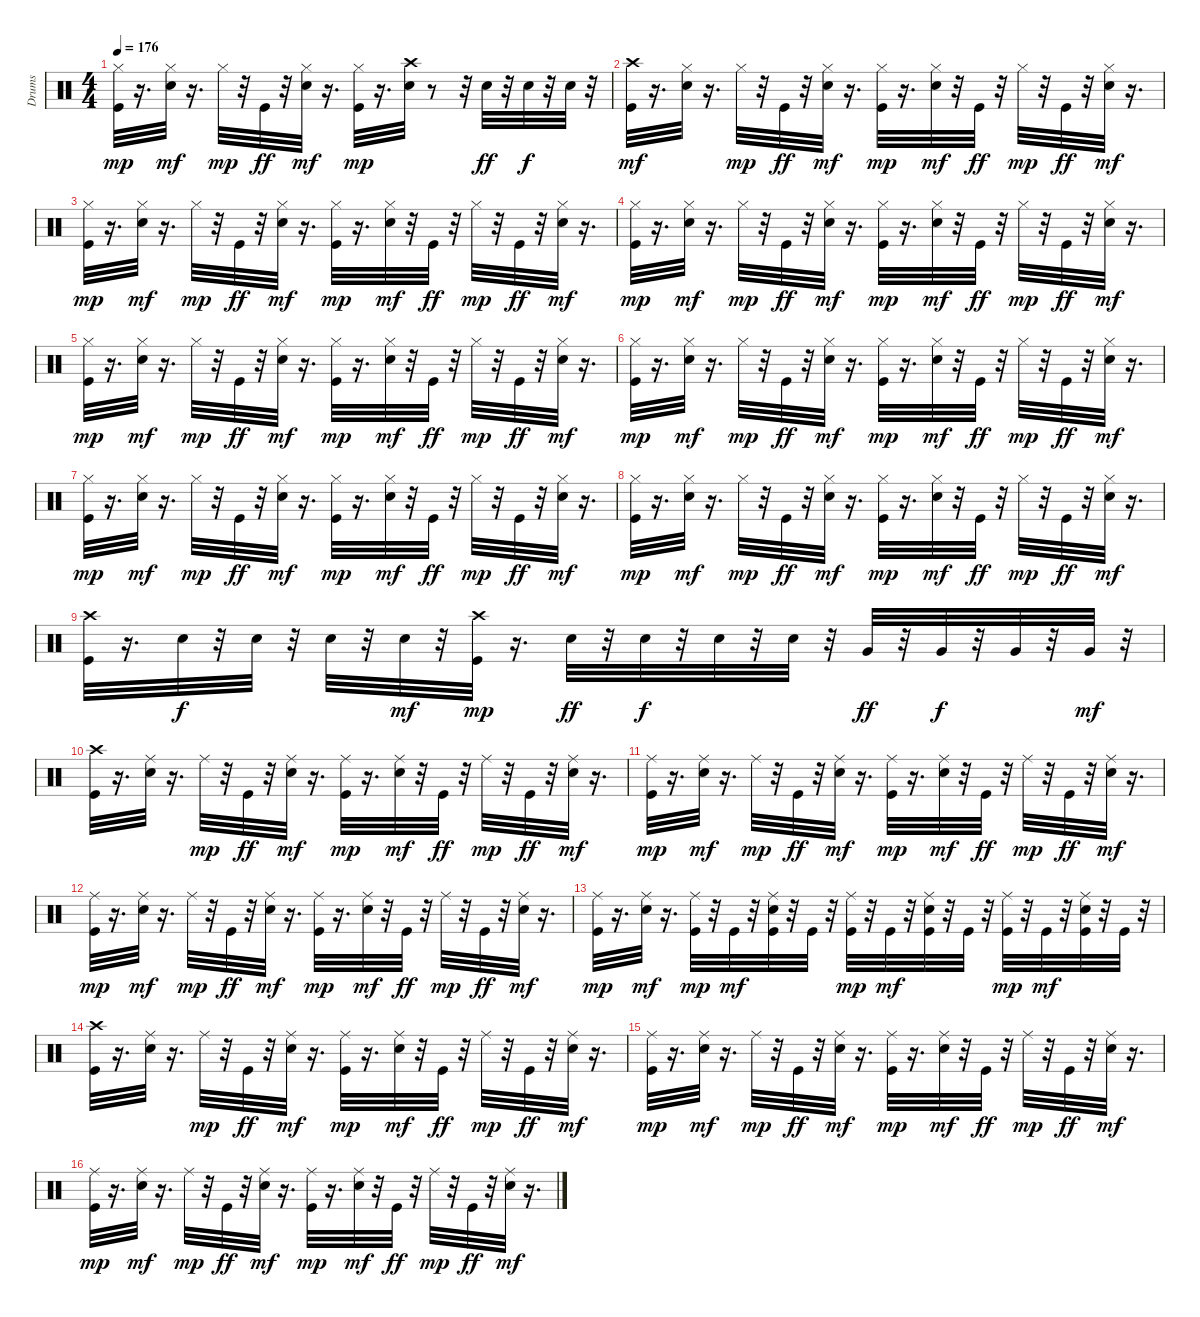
\track ("Drums" "Drums") {instrument percussion}
\staff {score}
\articulation defaults
\ts (4 4)
\tempo 176
\clef neutral
\ks c
("Kick (hit)" "Hi-Hat (closed)").32{dy mp} r.16{d} ("Snare (hit) 2" "Hi-Hat (closed)").32{dy mf} r.16{d} "Hi-Hat (closed)".32{dy mp} r.32 "Kick (hit)".32{dy ff} r.32 ("Snare (hit) 2" "Hi-Hat (closed)").32{dy mf} r.16{d} ("Kick (hit)" "Hi-Hat (closed)").32{dy mp} r.16{d} ("Snare (hit) 2" "Crash high (hit)").32 r.8 r.32 "Snare (hit) 2".32{dy ff} r.32 "Snare (hit) 2".32{dy f} r.32 "Snare (hit) 2".32 r.32 |
("Kick (hit)" "Crash high (hit)").32{dy mf} r.16{d} ("Snare (hit) 2" "Hi-Hat (closed)").32 r.16{d} "Hi-Hat (closed)".32{dy mp} r.32 "Kick (hit)".32{dy ff} r.32 ("Snare (hit) 2" "Hi-Hat (closed)").32{dy mf} r.16{d} ("Kick (hit)" "Hi-Hat (closed)").32{dy mp} r.16{d} ("Snare (hit) 2" "Hi-Hat (closed)").32{dy mf} r.32 "Kick (hit)".32{dy ff} r.32 "Hi-Hat (closed)".32{dy mp} r.32 "Kick (hit)".32{dy ff} r.32 ("Snare (hit) 2" "Hi-Hat (closed)").32{dy mf} r.16{d} |
("Kick (hit)" "Hi-Hat (closed)").32{dy mp} r.16{d} ("Snare (hit) 2" "Hi-Hat (closed)").32{dy mf} r.16{d} "Hi-Hat (closed)".32{dy mp} r.32 "Kick (hit)".32{dy ff} r.32 ("Snare (hit) 2" "Hi-Hat (closed)").32{dy mf} r.16{d} ("Kick (hit)" "Hi-Hat (closed)").32{dy mp} r.16{d} ("Snare (hit) 2" "Hi-Hat (closed)").32{dy mf} r.32 "Kick (hit)".32{dy ff} r.32 "Hi-Hat (closed)".32{dy mp} r.32 "Kick (hit)".32{dy ff} r.32 ("Snare (hit) 2" "Hi-Hat (closed)").32{dy mf} r.16{d} |
("Kick (hit)" "Hi-Hat (closed)").32{dy mp} r.16{d} ("Snare (hit) 2" "Hi-Hat (closed)").32{dy mf} r.16{d} "Hi-Hat (closed)".32{dy mp} r.32 "Kick (hit)".32{dy ff} r.32 ("Snare (hit) 2" "Hi-Hat (closed)").32{dy mf} r.16{d} ("Kick (hit)" "Hi-Hat (closed)").32{dy mp} r.16{d} ("Snare (hit) 2" "Hi-Hat (closed)").32{dy mf} r.32 "Kick (hit)".32{dy ff} r.32 "Hi-Hat (closed)".32{dy mp} r.32 "Kick (hit)".32{dy ff} r.32 ("Snare (hit) 2" "Hi-Hat (closed)").32{dy mf} r.16{d} |
("Kick (hit)" "Hi-Hat (closed)").32{dy mp} r.16{d} ("Snare (hit) 2" "Hi-Hat (closed)").32{dy mf} r.16{d} "Hi-Hat (closed)".32{dy mp} r.32 "Kick (hit)".32{dy ff} r.32 ("Snare (hit) 2" "Hi-Hat (closed)").32{dy mf} r.16{d} ("Kick (hit)" "Hi-Hat (closed)").32{dy mp} r.16{d} ("Snare (hit) 2" "Hi-Hat (closed)").32{dy mf} r.32 "Kick (hit)".32{dy ff} r.32 "Hi-Hat (closed)".32{dy mp} r.32 "Kick (hit)".32{dy ff} r.32 ("Snare (hit) 2" "Hi-Hat (closed)").32{dy mf} r.16{d} |
("Kick (hit)" "Hi-Hat (closed)").32{dy mp} r.16{d} ("Snare (hit) 2" "Hi-Hat (closed)").32{dy mf} r.16{d} "Hi-Hat (closed)".32{dy mp} r.32 "Kick (hit)".32{dy ff} r.32 ("Snare (hit) 2" "Hi-Hat (closed)").32{dy mf} r.16{d} ("Kick (hit)" "Hi-Hat (closed)").32{dy mp} r.16{d} ("Snare (hit) 2" "Hi-Hat (closed)").32{dy mf} r.32 "Kick (hit)".32{dy ff} r.32 "Hi-Hat (closed)".32{dy mp} r.32 "Kick (hit)".32{dy ff} r.32 ("Snare (hit) 2" "Hi-Hat (closed)").32{dy mf} r.16{d} |
("Kick (hit)" "Hi-Hat (closed)").32{dy mp} r.16{d} ("Snare (hit) 2" "Hi-Hat (closed)").32{dy mf} r.16{d} "Hi-Hat (closed)".32{dy mp} r.32 "Kick (hit)".32{dy ff} r.32 ("Snare (hit) 2" "Hi-Hat (closed)").32{dy mf} r.16{d} ("Kick (hit)" "Hi-Hat (closed)").32{dy mp} r.16{d} ("Snare (hit) 2" "Hi-Hat (closed)").32{dy mf} r.32 "Kick (hit)".32{dy ff} r.32 "Hi-Hat (closed)".32{dy mp} r.32 "Kick (hit)".32{dy ff} r.32 ("Snare (hit) 2" "Hi-Hat (closed)").32{dy mf} r.16{d} |
("Kick (hit)" "Hi-Hat (closed)").32{dy mp} r.16{d} ("Snare (hit) 2" "Hi-Hat (closed)").32{dy mf} r.16{d} "Hi-Hat (closed)".32{dy mp} r.32 "Kick (hit)".32{dy ff} r.32 ("Snare (hit) 2" "Hi-Hat (closed)").32{dy mf} r.16{d} ("Kick (hit)" "Hi-Hat (closed)").32{dy mp} r.16{d} ("Snare (hit) 2" "Hi-Hat (closed)").32{dy mf} r.32 "Kick (hit)".32{dy ff} r.32 "Hi-Hat (closed)".32{dy mp} r.32 "Kick (hit)".32{dy ff} r.32 ("Snare (hit) 2" "Hi-Hat (closed)").32{dy mf} r.16{d} |
("Kick (hit)" "Crash high (hit)").32 r.16{d} "Snare (hit) 2".32{dy f} r.32 "Snare (hit) 2".32 r.32 "Snare (hit) 2".32 r.32 "Snare (hit) 2".32{dy mf} r.32 ("Kick (hit)" "Crash high (hit)").32{dy mp} r.16{d} "Snare (hit) 2".32{dy ff} r.32 "Snare (hit) 2".32{dy f} r.32 "Snare (hit) 2".32 r.32 "Snare (hit) 2".32 r.32 "Very Low Tom (hit)".32{dy ff} r.32 "Very Low Tom (hit)".32{dy f} r.32 "Very Low Tom (hit)".32 r.32 "Very Low Tom (hit)".32{dy mf} r.32 |
("Kick (hit)" "Crash high (hit)").32 r.16{d} ("Snare (hit) 2" "Ride (middle)").32 r.16{d} "Ride (middle)".32{dy mp} r.32 "Kick (hit)".32{dy ff} r.32 ("Snare (hit) 2" "Ride (middle)").32{dy mf} r.16{d} ("Kick (hit)" "Ride (middle)").32{dy mp} r.16{d} ("Snare (hit) 2" "Ride (middle)").32{dy mf} r.32 "Kick (hit)".32{dy ff} r.32 "Ride (middle)".32{dy mp} r.32 "Kick (hit)".32{dy ff} r.32 ("Snare (hit) 2" "Ride (middle)").32{dy mf} r.16{d} |
("Kick (hit)" "Ride (middle)").32{dy mp} r.16{d} ("Snare (hit) 2" "Ride (middle)").32{dy mf} r.16{d} "Ride (middle)".32{dy mp} r.32 "Kick (hit)".32{dy ff} r.32 ("Snare (hit) 2" "Ride (middle)").32{dy mf} r.16{d} ("Kick (hit)" "Ride (middle)").32{dy mp} r.16{d} ("Snare (hit) 2" "Ride (middle)").32{dy mf} r.32 "Kick (hit)".32{dy ff} r.32 "Ride (middle)".32{dy mp} r.32 "Kick (hit)".32{dy ff} r.32 ("Snare (hit) 2" "Ride (middle)").32{dy mf} r.16{d} |
("Kick (hit)" "Ride (middle)").32{dy mp} r.16{d} ("Snare (hit) 2" "Ride (middle)").32{dy mf} r.16{d} "Ride (middle)".32{dy mp} r.32 "Kick (hit)".32{dy ff} r.32 ("Snare (hit) 2" "Ride (middle)").32{dy mf} r.16{d} ("Kick (hit)" "Ride (middle)").32{dy mp} r.16{d} ("Snare (hit) 2" "Ride (middle)").32{dy mf} r.32 "Kick (hit)".32{dy ff} r.32 "Ride (middle)".32{dy mp} r.32 "Kick (hit)".32{dy ff} r.32 ("Snare (hit) 2" "Ride (middle)").32{dy mf} r.16{d} |
("Kick (hit)" "Ride (middle)").32{dy mp} r.16{d} ("Snare (hit) 2" "Ride (middle)").32{dy mf} r.16{d} ("Kick (hit)" "Ride (middle)").32{dy mp} r.32 "Kick (hit)".32{dy mf} r.32 ("Kick (hit)" "Snare (hit) 2" "Ride (middle)").32 r.32 "Kick (hit)".32 r.32 ("Kick (hit)" "Ride (middle)").32{dy mp} r.32 "Kick (hit)".32{dy mf} r.32 ("Kick (hit)" "Snare (hit) 2" "Ride (middle)").32 r.32 "Kick (hit)".32 r.32 ("Kick (hit)" "Ride (middle)").32{dy mp} r.32 "Kick (hit)".32{dy mf} r.32 ("Kick (hit)" "Snare (hit) 2" "Ride (middle)").32 r.32 "Kick (hit)".32 r.32 |
("Kick (hit)" "Crash high (hit)").32 r.16{d} ("Snare (hit) 2" "Ride (middle)").32 r.16{d} "Ride (middle)".32{dy mp} r.32 "Kick (hit)".32{dy ff} r.32 ("Snare (hit) 2" "Ride (middle)").32{dy mf} r.16{d} ("Kick (hit)" "Ride (middle)").32{dy mp} r.16{d} ("Snare (hit) 2" "Ride (middle)").32{dy mf} r.32 "Kick (hit)".32{dy ff} r.32 "Ride (middle)".32{dy mp} r.32 "Kick (hit)".32{dy ff} r.32 ("Snare (hit) 2" "Ride (middle)").32{dy mf} r.16{d} |
("Kick (hit)" "Ride (middle)").32{dy mp} r.16{d} ("Snare (hit) 2" "Ride (middle)").32{dy mf} r.16{d} "Ride (middle)".32{dy mp} r.32 "Kick (hit)".32{dy ff} r.32 ("Snare (hit) 2" "Ride (middle)").32{dy mf} r.16{d} ("Kick (hit)" "Ride (middle)").32{dy mp} r.16{d} ("Snare (hit) 2" "Ride (middle)").32{dy mf} r.32 "Kick (hit)".32{dy ff} r.32 "Ride (middle)".32{dy mp} r.32 "Kick (hit)".32{dy ff} r.32 ("Snare (hit) 2" "Ride (middle)").32{dy mf} r.16{d} |
("Kick (hit)" "Ride (middle)").32{dy mp} r.16{d} ("Snare (hit) 2" "Ride (middle)").32{dy mf} r.16{d} "Ride (middle)".32{dy mp} r.32 "Kick (hit)".32{dy ff} r.32 ("Snare (hit) 2" "Ride (middle)").32{dy mf} r.16{d} ("Kick (hit)" "Ride (middle)").32{dy mp} r.16{d} ("Snare (hit) 2" "Ride (middle)").32{dy mf} r.32 "Kick (hit)".32{dy ff} r.32 "Ride (middle)".32{dy mp} r.32 "Kick (hit)".32{dy ff} r.32 ("Snare (hit) 2" "Ride (middle)").32{dy mf} r.16{d}
